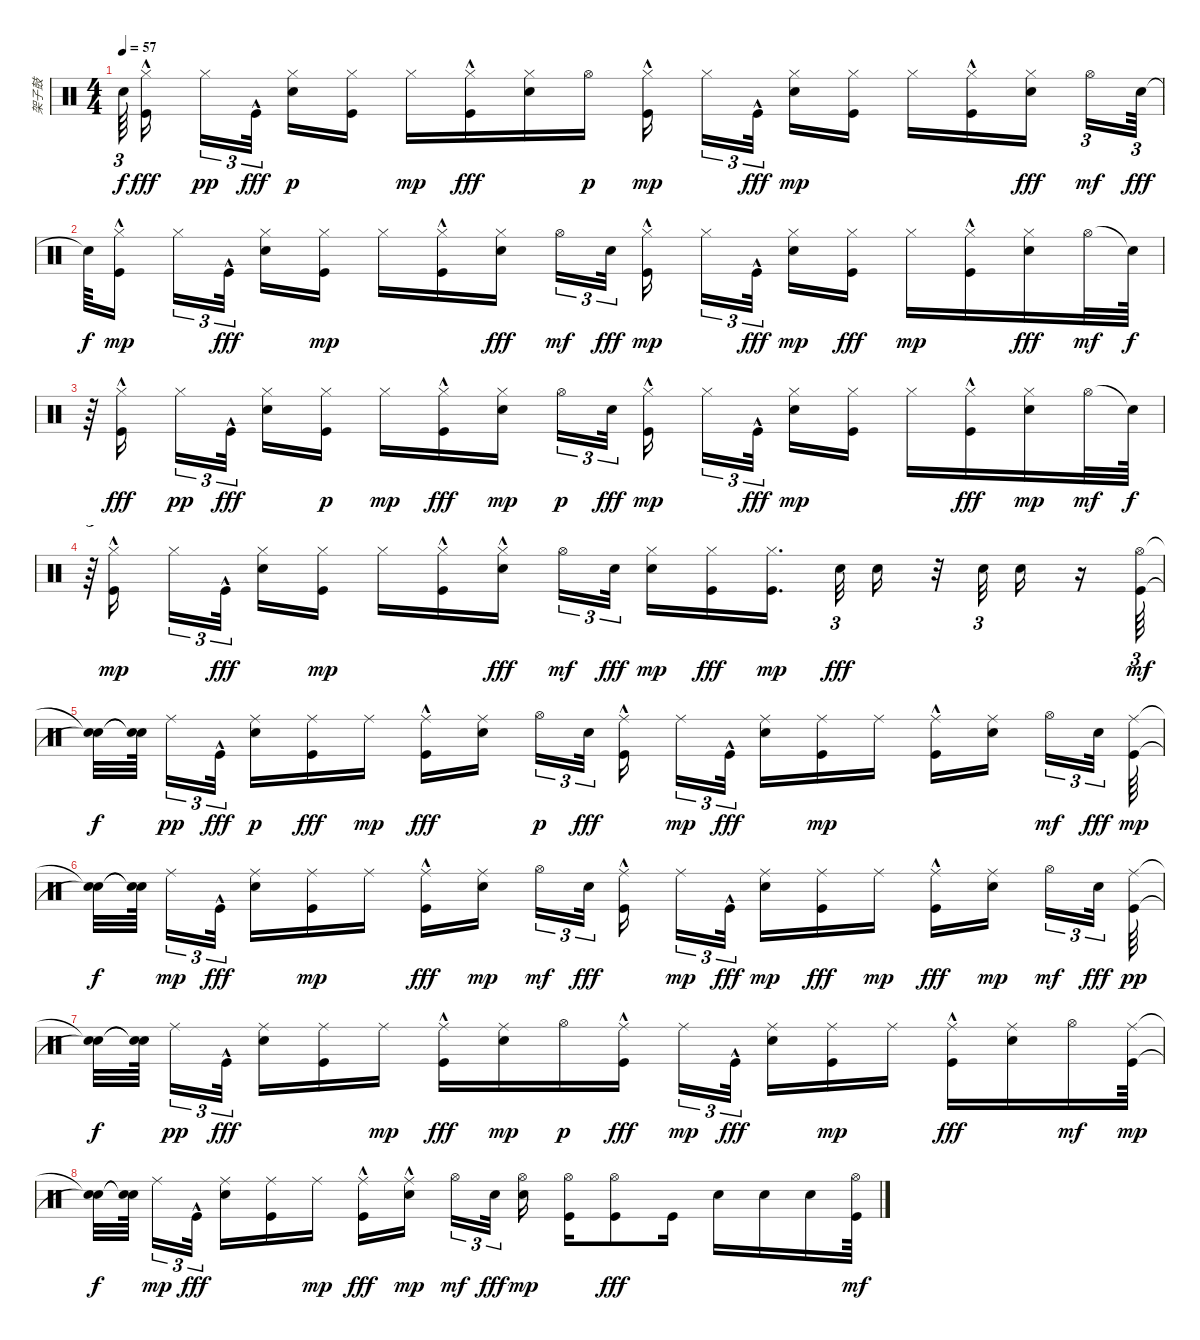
\track ("架子鼓" "架子鼓") {instrument percussion}
\staff {score}
\articulation defaults
\ts (4 4)
\tempo 57
\clef neutral
\ks c "Snare (hit)"{t}.64{tu (3 2) dy f}
("Hi-Hat (closed)" "Kick (hit)"{hac}).16{dy fff} "Hi-Hat (closed)".16{tu (3 2) dy pp} "Kick (hit)"{hac}.32{tu (3 2) dy fff} ("Electric Snare (hit)" "Hi-Hat (closed)").16{dy p} ("Kick (hit)" "Hi-Hat (closed)").16 "Hi-Hat (closed)".16{dy mp} ("Hi-Hat (closed)" "Kick (hit)"{hac}).16{dy fff} ("Hi-Hat (closed)" "Electric Snare (hit)").16 "Hi-Hat (open)".16{dy p} ("Kick (hit)"{hac} "Hi-Hat (closed)").16{dy mp} "Hi-Hat (closed)".16{tu (3 2)} "Kick (hit)"{hac}.32{tu (3 2) dy fff} ("Electric Snare (hit)" "Hi-Hat (closed)").16{dy mp} ("Kick (hit)" "Hi-Hat (closed)").16 "Hi-Hat (closed)".16 ("Kick (hit)"{hac} "Hi-Hat (closed)").16 ("Hi-Hat (closed)" "Electric Snare (hit)").16{dy fff} "Hi-Hat (open)".16{tu (3 2) dy mf} "Electric Snare (hit)".64{tu (3 2) dy fff} |
"Snare (hit)"{t}.64{dy f} ("Kick (hit)"{hac} "Hi-Hat (closed)").16{dy mp} "Hi-Hat (closed)".16{tu (3 2)} "Kick (hit)"{hac}.32{tu (3 2) dy fff} ("Hi-Hat (closed)" "Electric Snare (hit)").16 ("Kick (hit)" "Hi-Hat (closed)").16{dy mp} "Hi-Hat (closed)".16 ("Kick (hit)"{hac} "Hi-Hat (closed)").16 ("Hi-Hat (closed)" "Electric Snare (hit)").16{dy fff} "Hi-Hat (open)".16{tu (3 2) dy mf} "Electric Snare (hit)".32{tu (3 2) dy fff} ("Kick (hit)"{hac} "Hi-Hat (closed)").16{dy mp} "Hi-Hat (closed)".16{tu (3 2)} "Kick (hit)"{hac}.32{tu (3 2) dy fff} ("Electric Snare (hit)" "Hi-Hat (closed)").16{dy mp} ("Hi-Hat (closed)" "Kick (hit)").16{dy fff} "Hi-Hat (closed)".16{dy mp} ("Kick (hit)"{hac} "Hi-Hat (closed)").16 ("Hi-Hat (closed)" "Electric Snare (hit)").16{dy fff} "Hi-Hat (open)".32{dy mf} "Snare (hit)"{t}.64{dy f} |
r.64 ("Hi-Hat (closed)" "Kick (hit)"{hac}).16{dy fff} "Hi-Hat (closed)".16{tu (3 2) dy pp} "Kick (hit)"{hac}.32{tu (3 2) dy fff} ("Hi-Hat (closed)" "Electric Snare (hit)").16 ("Kick (hit)" "Hi-Hat (closed)").16{dy p} "Hi-Hat (closed)".16{dy mp} ("Hi-Hat (closed)" "Kick (hit)"{hac}).16{dy fff} ("Electric Snare (hit)" "Hi-Hat (closed)").16{dy mp} "Hi-Hat (open)".16{tu (3 2) dy p} "Electric Snare (hit)".32{tu (3 2) dy fff} ("Kick (hit)"{hac} "Hi-Hat (closed)").16{dy mp} "Hi-Hat (closed)".16{tu (3 2)} "Kick (hit)"{hac}.32{tu (3 2) dy fff} ("Electric Snare (hit)" "Hi-Hat (closed)").16{dy mp} ("Kick (hit)" "Hi-Hat (closed)").16 "Hi-Hat (closed)".16 ("Hi-Hat (closed)" "Kick (hit)"{hac}).16{dy fff} ("Electric Snare (hit)" "Hi-Hat (closed)").16{dy mp} "Hi-Hat (open)".32{dy mf} "Snare (hit)"{t}.64{dy f} |
r.64{tu (3 2)} ("Kick (hit)"{hac} "Hi-Hat (closed)").16{dy mp} "Hi-Hat (closed)".16{tu (3 2)} "Kick (hit)"{hac}.32{tu (3 2) dy fff} ("Hi-Hat (closed)" "Electric Snare (hit)").16 ("Kick (hit)" "Hi-Hat (closed)").16{dy mp} "Hi-Hat (closed)".16 ("Kick (hit)"{hac} "Hi-Hat (closed)").16 ("Hi-Hat (closed)" "Electric Snare (hit)"{hac}).16{dy fff} "Hi-Hat (open)".16{tu (3 2) dy mf} "Electric Snare (hit)".32{tu (3 2) dy fff} ("Electric Snare (hit)" "Hi-Hat (closed)").16{dy mp} ("Hi-Hat (closed)" "Kick (hit)").16{dy fff} ("Kick (hit)" "Hi-Hat (closed)").16{d dy mp} "Electric Snare (hit)".32{tu (3 2) dy fff} "Electric Snare (hit)".16 r.32 "Electric Snare (hit)".32{tu (3 2)} "Electric Snare (hit)".16 r.16 ("Kick (hit)" "Hi-Hat (open)").64{tu (3 2) dy mf} |
("Snare (hit)"{t} "Snare (hit)"{t}).32{dy f} ("Snare (hit)"{t} "Snare (hit)"{t}).64 "Ride (middle)".16{tu (3 2) dy pp} "Kick (hit)"{hac}.32{tu (3 2) dy fff} ("Electric Snare (hit)" "Ride (middle)").16{dy p} ("Ride (middle)" "Kick (hit)").16{dy fff} "Ride (middle)".16{dy mp} ("Ride (middle)" "Kick (hit)"{hac}).16{dy fff} ("Ride (middle)" "Electric Snare (hit)").16 "Hi-Hat (open)".16{tu (3 2) dy p} "Electric Snare (hit)".32{tu (3 2) dy fff} ("Ride (middle)" "Kick (hit)"{hac}).16 "Ride (middle)".16{tu (3 2) dy mp} "Kick (hit)"{hac}.32{tu (3 2) dy fff} ("Ride (middle)" "Electric Snare (hit)").16 ("Kick (hit)" "Ride (middle)").16{dy mp} "Ride (middle)".16 ("Kick (hit)"{hac} "Ride (middle)").16 ("Electric Snare (hit)" "Ride (middle)").16 "Hi-Hat (open)".16{tu (3 2) dy mf} "Electric Snare (hit)".32{tu (3 2) dy fff} ("Kick (hit)" "Ride (middle)").64{dy mp} |
("Snare (hit)"{t} "Snare (hit)"{t}).32{dy f} ("Snare (hit)"{t} "Snare (hit)"{t}).64 "Ride (middle)".16{tu (3 2) dy mp} "Kick (hit)"{hac}.32{tu (3 2) dy fff} ("Ride (middle)" "Electric Snare (hit)").16 ("Kick (hit)" "Ride (middle)").16{dy mp} "Ride (middle)".16 ("Ride (middle)" "Kick (hit)"{hac}).16{dy fff} ("Electric Snare (hit)" "Ride (middle)").16{dy mp} "Hi-Hat (open)".16{tu (3 2) dy mf} "Electric Snare (hit)".32{tu (3 2) dy fff} ("Ride (middle)" "Kick (hit)"{hac}).16 "Ride (middle)".16{tu (3 2) dy mp} "Kick (hit)"{hac}.32{tu (3 2) dy fff} ("Electric Snare (hit)" "Ride (middle)").16{dy mp} ("Ride (middle)" "Kick (hit)").16{dy fff} "Ride (middle)".16{dy mp} ("Ride (middle)" "Kick (hit)"{hac}).16{dy fff} ("Electric Snare (hit)" "Ride (middle)").16{dy mp} "Hi-Hat (open)".16{tu (3 2) dy mf} "Electric Snare (hit)".32{tu (3 2) dy fff} ("Kick (hit)" "Ride (middle)").64{dy pp} |
("Snare (hit)"{t} "Snare (hit)"{t}).32{dy f} ("Snare (hit)"{t} "Snare (hit)"{t}).64 "Ride (middle)".16{tu (3 2) dy pp} "Kick (hit)"{hac}.32{tu (3 2) dy fff} ("Ride (middle)" "Electric Snare (hit)").16 ("Ride (middle)" "Kick (hit)").16 "Ride (middle)".16{dy mp} ("Ride (middle)" "Kick (hit)"{hac}).16{dy fff} ("Electric Snare (hit)" "Ride (middle)").16{dy mp} "Hi-Hat (open)".16{dy p} ("Ride (middle)" "Kick (hit)"{hac}).16{dy fff} "Ride (middle)".16{tu (3 2) dy mp} "Kick (hit)"{hac}.32{tu (3 2) dy fff} ("Ride (middle)" "Electric Snare (hit)").16 ("Kick (hit)" "Ride (middle)").16{dy mp} "Ride (middle)".16 ("Ride (middle)" "Kick (hit)"{hac}).16{dy fff} ("Ride (middle)" "Electric Snare (hit)").16 "Hi-Hat (open)".16{dy mf} ("Kick (hit)" "Ride (middle)").64{dy mp} |
("Snare (hit)"{t} "Snare (hit)"{t}).32{dy f} ("Snare (hit)"{t} "Snare (hit)"{t}).64 "Ride (middle)".16{tu (3 2) dy mp} "Kick (hit)"{hac}.32{tu (3 2) dy fff} ("Ride (middle)" "Electric Snare (hit)").16 ("Ride (middle)" "Kick (hit)").16 "Ride (middle)".16{dy mp} ("Ride (middle)" "Kick (hit)"{hac}).16{dy fff} ("Electric Snare (hit)"{hac} "Ride (middle)").16{dy mp} "Hi-Hat (open)".16{tu (3 2) dy mf} "Electric Snare (hit)".32{tu (3 2) dy fff} ("Electric Snare (hit)" "Hi-Hat (open)").16{dy mp} ("Kick (hit)" "Hi-Hat (open)").16 ("Hi-Hat (open)" "Kick (hit)").8{dy fff} "Kick (hit)".16 "Electric Snare (hit)".16 "Electric Snare (hit)".16 "Electric Snare (hit)".16 ("Kick (hit)" "Hi-Hat (open)").64{dy mf}
